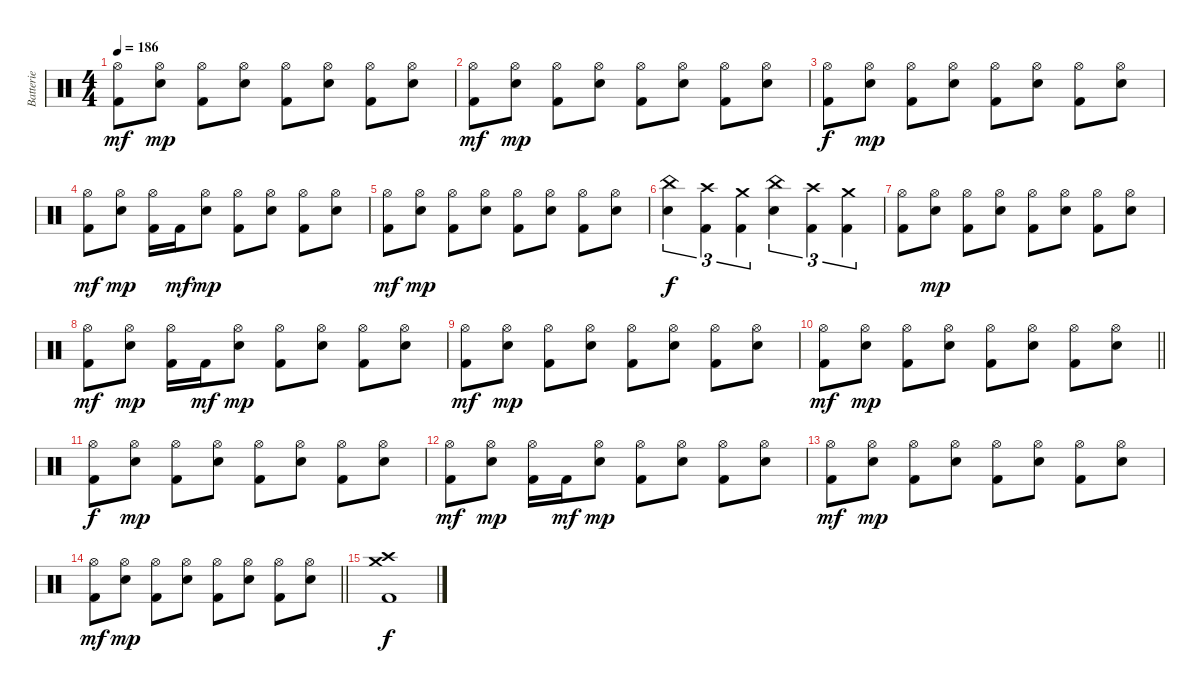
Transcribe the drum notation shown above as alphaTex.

\track ("Batterie" "Batterie") {instrument percussion}
\staff {score}
\articulation defaults
\ts (4 4)
\tempo 186
\clef neutral
\ks c
("Kick (hit) 2" "Hi-Hat (open)").8{dy mf} ("Electric Snare (hit)" "Hi-Hat (open)").8{dy mp} ("Kick (hit) 2" "Hi-Hat (open)").8 ("Electric Snare (hit)" "Hi-Hat (open)").8 ("Kick (hit) 2" "Hi-Hat (open)").8 ("Electric Snare (hit)" "Hi-Hat (open)").8 ("Kick (hit) 2" "Hi-Hat (open)").8 ("Electric Snare (hit)" "Hi-Hat (open)").8 |
("Kick (hit) 2" "Hi-Hat (open)").8{dy mf} ("Electric Snare (hit)" "Hi-Hat (open)").8{dy mp} ("Kick (hit) 2" "Hi-Hat (open)").8 ("Electric Snare (hit)" "Hi-Hat (open)").8 ("Kick (hit) 2" "Hi-Hat (open)").8 ("Electric Snare (hit)" "Hi-Hat (open)").8 ("Kick (hit) 2" "Hi-Hat (open)").8 ("Electric Snare (hit)" "Hi-Hat (open)").8 |
("Kick (hit) 2" "Hi-Hat (open)").8{dy f} ("Electric Snare (hit)" "Hi-Hat (open)").8{dy mp} ("Kick (hit) 2" "Hi-Hat (open)").8 ("Electric Snare (hit)" "Hi-Hat (open)").8 ("Kick (hit) 2" "Hi-Hat (open)").8 ("Electric Snare (hit)" "Hi-Hat (open)").8 ("Kick (hit) 2" "Hi-Hat (open)").8 ("Electric Snare (hit)" "Hi-Hat (open)").8 |
("Kick (hit) 2" "Hi-Hat (open)").8{dy mf} ("Electric Snare (hit)" "Hi-Hat (open)").8{dy mp} ("Kick (hit) 2" "Hi-Hat (open)").16 "Kick (hit) 2".16{dy mf} ("Electric Snare (hit)" "Hi-Hat (open)").8{dy mp} ("Kick (hit) 2" "Hi-Hat (open)").8 ("Electric Snare (hit)" "Hi-Hat (open)").8 ("Kick (hit) 2" "Hi-Hat (open)").8 ("Electric Snare (hit)" "Hi-Hat (open)").8 |
("Kick (hit) 2" "Hi-Hat (open)").8{dy mf} ("Electric Snare (hit)" "Hi-Hat (open)").8{dy mp} ("Kick (hit) 2" "Hi-Hat (open)").8 ("Electric Snare (hit)" "Hi-Hat (open)").8 ("Kick (hit) 2" "Hi-Hat (open)").8 ("Electric Snare (hit)" "Hi-Hat (open)").8 ("Kick (hit) 2" "Hi-Hat (open)").8 ("Electric Snare (hit)" "Hi-Hat (open)").8 |
("Electric Snare (hit)" "China (hit)").4{tu (3 2) dy f} ("Kick (hit) 2" "Crash high (hit)").4{tu (3 2)} ("Kick (hit) 2" "Crash medium (hit)").4{tu (3 2)} ("Electric Snare (hit)" "China (hit)").4{tu (3 2)} ("Kick (hit) 2" "Crash high (hit)").4{tu (3 2)} ("Kick (hit) 2" "Crash medium (hit)").4{tu (3 2)} |
("Kick (hit) 2" "Hi-Hat (open)").8 ("Electric Snare (hit)" "Hi-Hat (open)").8{dy mp} ("Kick (hit) 2" "Hi-Hat (open)").8 ("Electric Snare (hit)" "Hi-Hat (open)").8 ("Kick (hit) 2" "Hi-Hat (open)").8 ("Electric Snare (hit)" "Hi-Hat (open)").8 ("Kick (hit) 2" "Hi-Hat (open)").8 ("Electric Snare (hit)" "Hi-Hat (open)").8 |
("Kick (hit) 2" "Hi-Hat (open)").8{dy mf} ("Electric Snare (hit)" "Hi-Hat (open)").8{dy mp} ("Kick (hit) 2" "Hi-Hat (open)").16 "Kick (hit) 2".16{dy mf} ("Electric Snare (hit)" "Hi-Hat (open)").8{dy mp} ("Kick (hit) 2" "Hi-Hat (open)").8 ("Electric Snare (hit)" "Hi-Hat (open)").8 ("Kick (hit) 2" "Hi-Hat (open)").8 ("Electric Snare (hit)" "Hi-Hat (open)").8 |
("Kick (hit) 2" "Hi-Hat (open)").8{dy mf} ("Electric Snare (hit)" "Hi-Hat (open)").8{dy mp} ("Kick (hit) 2" "Hi-Hat (open)").8 ("Electric Snare (hit)" "Hi-Hat (open)").8 ("Kick (hit) 2" "Hi-Hat (open)").8 ("Electric Snare (hit)" "Hi-Hat (open)").8 ("Kick (hit) 2" "Hi-Hat (open)").8 ("Electric Snare (hit)" "Hi-Hat (open)").8 |
\barLineRight lightlight
("Kick (hit) 2" "Hi-Hat (open)").8{dy mf} ("Electric Snare (hit)" "Hi-Hat (open)").8{dy mp} ("Kick (hit) 2" "Hi-Hat (open)").8 ("Electric Snare (hit)" "Hi-Hat (open)").8 ("Kick (hit) 2" "Hi-Hat (open)").8 ("Electric Snare (hit)" "Hi-Hat (open)").8 ("Kick (hit) 2" "Hi-Hat (open)").8 ("Electric Snare (hit)" "Hi-Hat (open)").8 |
("Kick (hit) 2" "Hi-Hat (open)").8{dy f} ("Electric Snare (hit)" "Hi-Hat (open)").8{dy mp} ("Kick (hit) 2" "Hi-Hat (open)").8 ("Electric Snare (hit)" "Hi-Hat (open)").8 ("Kick (hit) 2" "Hi-Hat (open)").8 ("Electric Snare (hit)" "Hi-Hat (open)").8 ("Kick (hit) 2" "Hi-Hat (open)").8 ("Electric Snare (hit)" "Hi-Hat (open)").8 |
("Kick (hit) 2" "Hi-Hat (open)").8{dy mf} ("Electric Snare (hit)" "Hi-Hat (open)").8{dy mp} ("Kick (hit) 2" "Hi-Hat (open)").16 "Kick (hit) 2".16{dy mf} ("Electric Snare (hit)" "Hi-Hat (open)").8{dy mp} ("Kick (hit) 2" "Hi-Hat (open)").8 ("Electric Snare (hit)" "Hi-Hat (open)").8 ("Kick (hit) 2" "Hi-Hat (open)").8 ("Electric Snare (hit)" "Hi-Hat (open)").8 |
("Kick (hit) 2" "Hi-Hat (open)").8{dy mf} ("Electric Snare (hit)" "Hi-Hat (open)").8{dy mp} ("Kick (hit) 2" "Hi-Hat (open)").8 ("Electric Snare (hit)" "Hi-Hat (open)").8 ("Kick (hit) 2" "Hi-Hat (open)").8 ("Electric Snare (hit)" "Hi-Hat (open)").8 ("Kick (hit) 2" "Hi-Hat (open)").8 ("Electric Snare (hit)" "Hi-Hat (open)").8 |
\barLineRight lightlight
("Kick (hit) 2" "Hi-Hat (open)").8{dy mf} ("Electric Snare (hit)" "Hi-Hat (open)").8{dy mp} ("Kick (hit) 2" "Hi-Hat (open)").8 ("Electric Snare (hit)" "Hi-Hat (open)").8 ("Kick (hit) 2" "Hi-Hat (open)").8 ("Electric Snare (hit)" "Hi-Hat (open)").8 ("Kick (hit) 2" "Hi-Hat (open)").8 ("Electric Snare (hit)" "Hi-Hat (open)").8 |
("Kick (hit) 2" "Crash medium (hit)" "Crash high (hit)").1{dy f}
